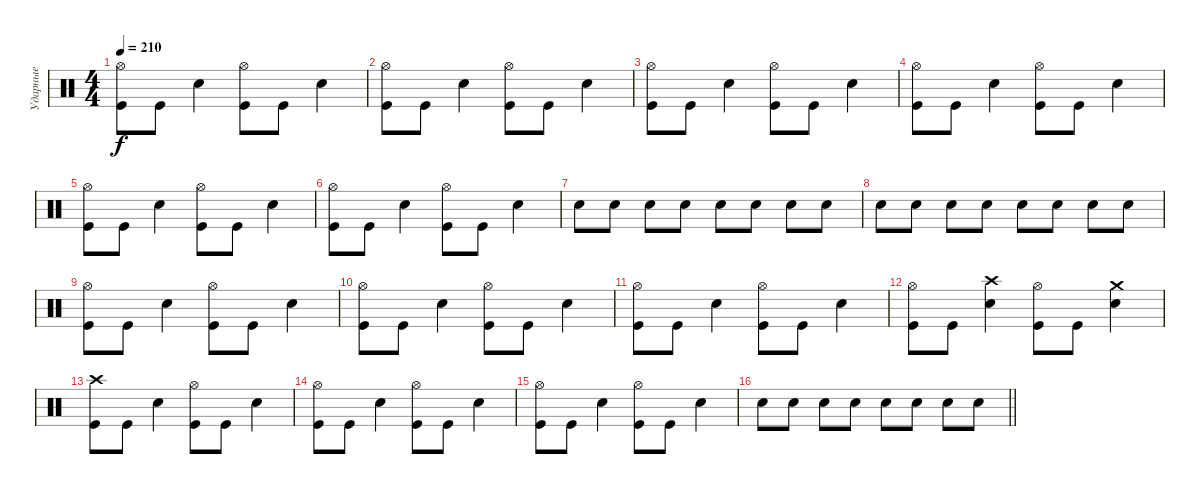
\track ("Ударные" "Ударные") {instrument percussion}
\staff {score}
\articulation defaults
\ts (4 4)
\tempo 210
\clef neutral
\ks c
("Hi-Hat (open)" "Kick (hit)").8{dy f} "Kick (hit)".8 "Snare (hit) 2".4 ("Hi-Hat (open)" "Kick (hit)").8 "Kick (hit)".8 "Snare (hit) 2".4 |
("Hi-Hat (open)" "Kick (hit)").8 "Kick (hit)".8 "Snare (hit) 2".4 ("Hi-Hat (open)" "Kick (hit)").8 "Kick (hit)".8 "Snare (hit) 2".4 |
("Hi-Hat (open)" "Kick (hit)").8 "Kick (hit)".8 "Snare (hit) 2".4 ("Hi-Hat (open)" "Kick (hit)").8 "Kick (hit)".8 "Snare (hit) 2".4 |
("Hi-Hat (open)" "Kick (hit)").8 "Kick (hit)".8 "Snare (hit) 2".4 ("Hi-Hat (open)" "Kick (hit)").8 "Kick (hit)".8 "Snare (hit) 2".4 |
("Hi-Hat (open)" "Kick (hit)").8 "Kick (hit)".8 "Snare (hit) 2".4 ("Hi-Hat (open)" "Kick (hit)").8 "Kick (hit)".8 "Snare (hit) 2".4 |
("Hi-Hat (open)" "Kick (hit)").8 "Kick (hit)".8 "Snare (hit) 2".4 ("Hi-Hat (open)" "Kick (hit)").8 "Kick (hit)".8 "Snare (hit) 2".4 |
"Snare (hit) 2".8 "Snare (hit) 2".8 "Snare (hit) 2".8 "Snare (hit) 2".8 "Snare (hit) 2".8 "Snare (hit) 2".8 "Snare (hit) 2".8 "Snare (hit) 2".8 |
"Snare (hit) 2".8 "Snare (hit) 2".8 "Snare (hit) 2".8 "Snare (hit) 2".8 "Snare (hit) 2".8 "Snare (hit) 2".8 "Snare (hit) 2".8 "Snare (hit) 2".8 |
("Hi-Hat (open)" "Kick (hit)").8 "Kick (hit)".8 "Snare (hit) 2".4 ("Hi-Hat (open)" "Kick (hit)").8 "Kick (hit)".8 "Snare (hit) 2".4 |
("Hi-Hat (open)" "Kick (hit)").8 "Kick (hit)".8 "Snare (hit) 2".4 ("Hi-Hat (open)" "Kick (hit)").8 "Kick (hit)".8 "Snare (hit) 2".4 |
("Hi-Hat (open)" "Kick (hit)").8 "Kick (hit)".8 "Snare (hit) 2".4 ("Hi-Hat (open)" "Kick (hit)").8 "Kick (hit)".8 "Snare (hit) 2".4 |
("Hi-Hat (open)" "Kick (hit)").8 "Kick (hit)".8 ("Crash high (hit)" "Snare (hit) 2").4 ("Hi-Hat (open)" "Kick (hit)").8 "Kick (hit)".8 ("Crash medium (hit)" "Snare (hit) 2").4 |
("Crash high (hit)" "Kick (hit)").8 "Kick (hit)".8 "Snare (hit) 2".4 ("Hi-Hat (open)" "Kick (hit)").8 "Kick (hit)".8 "Snare (hit) 2".4 |
("Hi-Hat (open)" "Kick (hit)").8 "Kick (hit)".8 "Snare (hit) 2".4 ("Hi-Hat (open)" "Kick (hit)").8 "Kick (hit)".8 "Snare (hit) 2".4 |
("Hi-Hat (open)" "Kick (hit)").8 "Kick (hit)".8 "Snare (hit) 2".4 ("Hi-Hat (open)" "Kick (hit)").8 "Kick (hit)".8 "Snare (hit) 2".4 |
\barLineRight lightlight "Snare (hit) 2".8 "Snare (hit) 2".8 "Snare (hit) 2".8 "Snare (hit) 2".8 "Snare (hit) 2".8 "Snare (hit) 2".8 "Snare (hit) 2".8 "Snare (hit) 2".8
